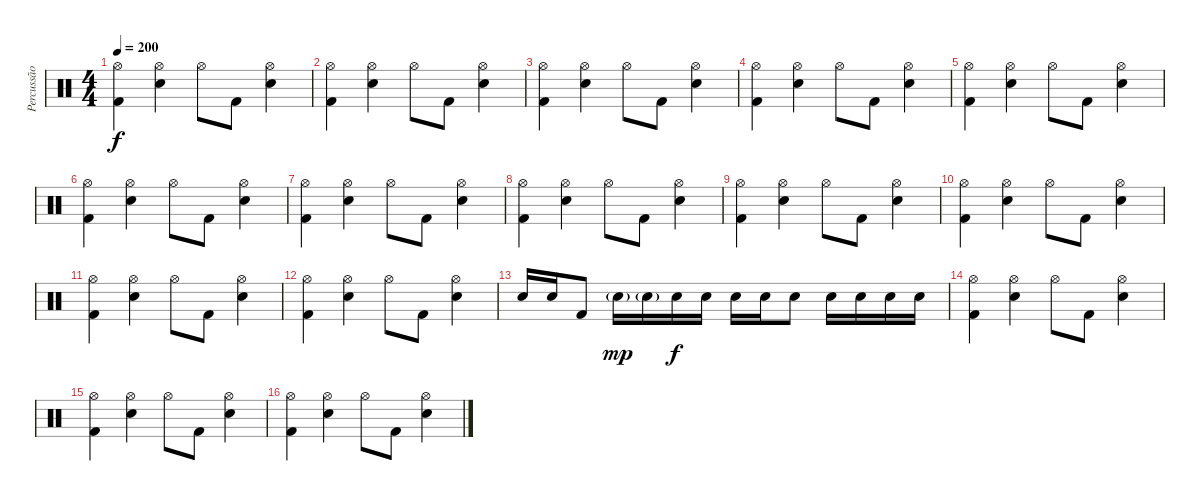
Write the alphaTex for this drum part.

\track ("Percussão" "Percussão") {instrument percussion}
\staff {score}
\articulation defaults
\ts (4 4)
\tempo 200
\clef neutral
\ks c
("Hi-Hat (open)" "Kick (hit) 2").4{dy f} ("Hi-Hat (open)" "Electric Snare (hit)").4 "Hi-Hat (open)".8 "Kick (hit) 2".8 ("Hi-Hat (open)" "Electric Snare (hit)").4 |
("Hi-Hat (open)" "Kick (hit) 2").4 ("Hi-Hat (open)" "Electric Snare (hit)").4 "Hi-Hat (open)".8 "Kick (hit) 2".8 ("Hi-Hat (open)" "Electric Snare (hit)").4 |
("Hi-Hat (open)" "Kick (hit) 2").4 ("Hi-Hat (open)" "Electric Snare (hit)").4 "Hi-Hat (open)".8 "Kick (hit) 2".8 ("Hi-Hat (open)" "Electric Snare (hit)").4 |
("Hi-Hat (open)" "Kick (hit) 2").4 ("Hi-Hat (open)" "Electric Snare (hit)").4 "Hi-Hat (open)".8 "Kick (hit) 2".8 ("Hi-Hat (open)" "Electric Snare (hit)").4 |
("Hi-Hat (open)" "Kick (hit) 2").4 ("Hi-Hat (open)" "Electric Snare (hit)").4 "Hi-Hat (open)".8 "Kick (hit) 2".8 ("Hi-Hat (open)" "Electric Snare (hit)").4 |
("Hi-Hat (open)" "Kick (hit) 2").4 ("Hi-Hat (open)" "Electric Snare (hit)").4 "Hi-Hat (open)".8 "Kick (hit) 2".8 ("Hi-Hat (open)" "Electric Snare (hit)").4 |
("Hi-Hat (open)" "Kick (hit) 2").4 ("Hi-Hat (open)" "Electric Snare (hit)").4 "Hi-Hat (open)".8 "Kick (hit) 2".8 ("Hi-Hat (open)" "Electric Snare (hit)").4 |
("Hi-Hat (open)" "Kick (hit) 2").4 ("Hi-Hat (open)" "Electric Snare (hit)").4 "Hi-Hat (open)".8 "Kick (hit) 2".8 ("Hi-Hat (open)" "Electric Snare (hit)").4 |
("Hi-Hat (open)" "Kick (hit) 2").4 ("Hi-Hat (open)" "Electric Snare (hit)").4 "Hi-Hat (open)".8 "Kick (hit) 2".8 ("Hi-Hat (open)" "Electric Snare (hit)").4 |
("Hi-Hat (open)" "Kick (hit) 2").4 ("Hi-Hat (open)" "Electric Snare (hit)").4 "Hi-Hat (open)".8 "Kick (hit) 2".8 ("Hi-Hat (open)" "Electric Snare (hit)").4 |
("Hi-Hat (open)" "Kick (hit) 2").4 ("Hi-Hat (open)" "Electric Snare (hit)").4 "Hi-Hat (open)".8 "Kick (hit) 2".8 ("Hi-Hat (open)" "Electric Snare (hit)").4 |
("Hi-Hat (open)" "Kick (hit) 2").4 ("Hi-Hat (open)" "Electric Snare (hit)").4 "Hi-Hat (open)".8 "Kick (hit) 2".8 ("Hi-Hat (open)" "Electric Snare (hit)").4 |
"Electric Snare (hit)".16 "Electric Snare (hit)".16 "Kick (hit) 2".8 "Electric Snare (hit)"{g}.16{dy mp} "Electric Snare (hit)"{g}.16 "Electric Snare (hit)".16{dy f} "Electric Snare (hit)".16 "Electric Snare (hit)".16 "Electric Snare (hit)".16 "Electric Snare (hit)".8 "Electric Snare (hit)".16 "Electric Snare (hit)".16 "Electric Snare (hit)".16 "Electric Snare (hit)".16 |
("Hi-Hat (open)" "Kick (hit) 2").4 ("Hi-Hat (open)" "Electric Snare (hit)").4 "Hi-Hat (open)".8 "Kick (hit) 2".8 ("Hi-Hat (open)" "Electric Snare (hit)").4 |
("Hi-Hat (open)" "Kick (hit) 2").4 ("Hi-Hat (open)" "Electric Snare (hit)").4 "Hi-Hat (open)".8 "Kick (hit) 2".8 ("Hi-Hat (open)" "Electric Snare (hit)").4 |
("Hi-Hat (open)" "Kick (hit) 2").4 ("Hi-Hat (open)" "Electric Snare (hit)").4 "Hi-Hat (open)".8 "Kick (hit) 2".8 ("Hi-Hat (open)" "Electric Snare (hit)").4
